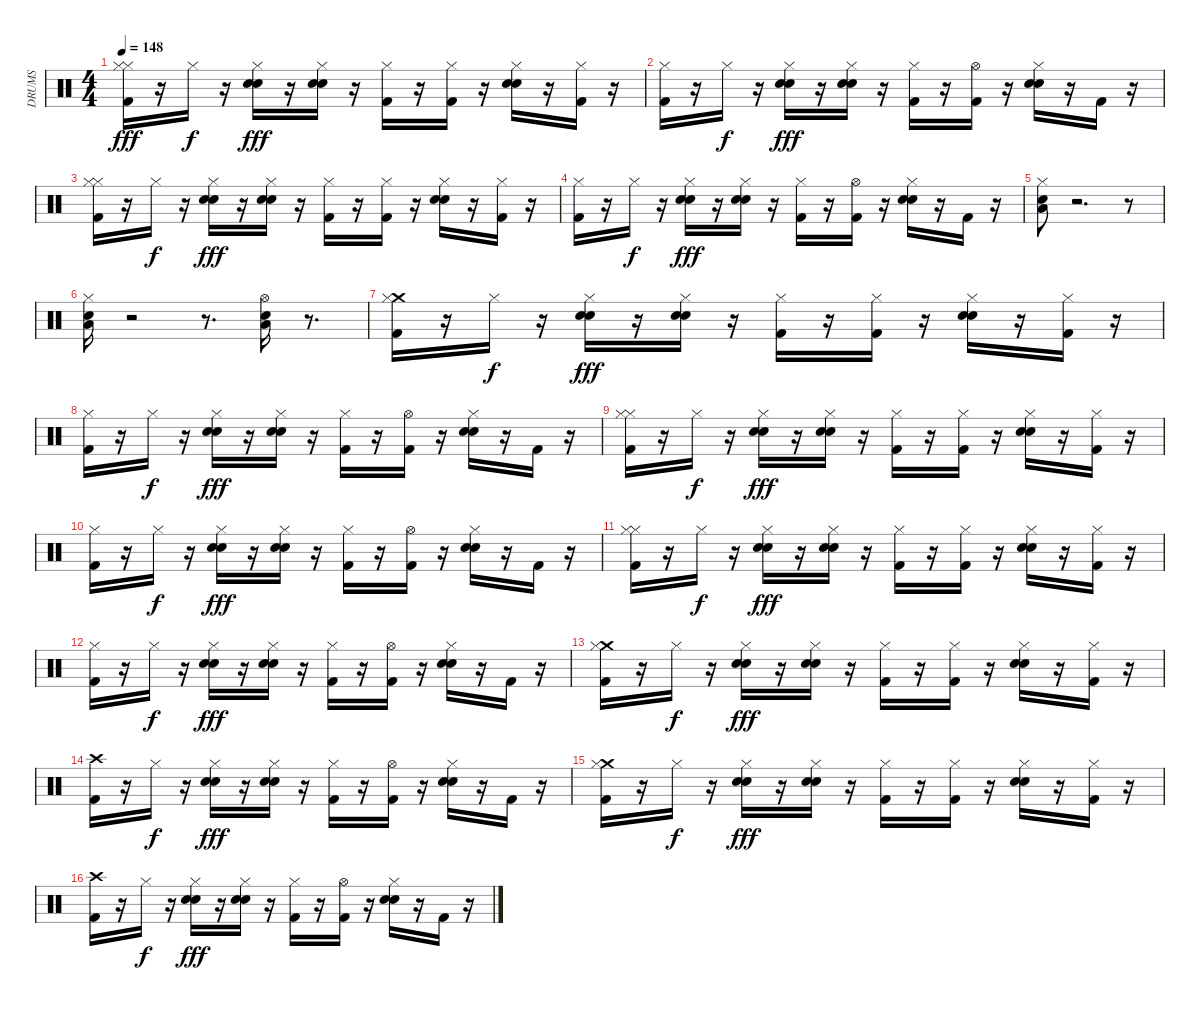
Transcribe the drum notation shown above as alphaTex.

\track ("DRUMS" "DRUMS") {instrument percussion}
\staff {score}
\articulation defaults
\ts (4 4)
\tempo 148
\clef neutral
\ks c
("Hi-Hat (closed)" "Kick (hit) 2" "Hi-Hat (closed)").16{dy fff} r.16 "Hi-Hat (closed)".16{dy f} r.16 ("Hi-Hat (closed)" "Hand Clap (hit)" "Snare (hit) 2").16{dy fff} r.16 ("Snare (hit) 2" "Hand Clap (hit)" "Hi-Hat (closed)").16 r.16 ("Hi-Hat (closed)" "Kick (hit) 2").16 r.16 ("Hi-Hat (closed)" "Kick (hit) 2").16 r.16 ("Hi-Hat (closed)" "Hand Clap (hit)" "Snare (hit) 2").16 r.16 ("Hi-Hat (closed)" "Kick (hit) 2").16 r.16 |
("Hi-Hat (closed)" "Kick (hit) 2").16 r.16 "Hi-Hat (closed)".16{dy f} r.16 ("Hi-Hat (closed)" "Hand Clap (hit)" "Snare (hit) 2").16{dy fff} r.16 ("Hi-Hat (closed)" "Hand Clap (hit)" "Snare (hit) 2").16 r.16 ("Hi-Hat (closed)" "Kick (hit) 2").16 r.16 ("Hi-Hat (open)" "Kick (hit) 2").16 r.16 ("Hand Clap (hit)" "Snare (hit) 2" "Hi-Hat (closed)").16 r.16 "Kick (hit) 2".16 r.16 |
("Hi-Hat (closed)" "Kick (hit) 2" "Hi-Hat (closed)").16 r.16 "Hi-Hat (closed)".16{dy f} r.16 ("Hi-Hat (closed)" "Hand Clap (hit)" "Snare (hit) 2").16{dy fff} r.16 ("Snare (hit) 2" "Hand Clap (hit)" "Hi-Hat (closed)").16 r.16 ("Hi-Hat (closed)" "Kick (hit) 2").16 r.16 ("Hi-Hat (closed)" "Kick (hit) 2").16 r.16 ("Hi-Hat (closed)" "Hand Clap (hit)" "Snare (hit) 2").16 r.16 ("Hi-Hat (closed)" "Kick (hit) 2").16 r.16 |
("Hi-Hat (closed)" "Kick (hit) 2").16 r.16 "Hi-Hat (closed)".16{dy f} r.16 ("Hi-Hat (closed)" "Hand Clap (hit)" "Snare (hit) 2").16{dy fff} r.16 ("Hi-Hat (closed)" "Hand Clap (hit)" "Snare (hit) 2").16 r.16 ("Hi-Hat (closed)" "Kick (hit) 2").16 r.16 ("Hi-Hat (open)" "Kick (hit) 2").16 r.16 ("Hand Clap (hit)" "Snare (hit) 2" "Hi-Hat (closed)").16 r.16 "Kick (hit) 2".16 r.16 |
("Low Floor Tom (hit)" "Snare (hit) 2" "Hi-Hat (closed)").8 r.2{d} r.8 |
("Low Floor Tom (hit)" "Snare (hit) 2" "Hi-Hat (closed)").16 r.2 r.8{d} ("Low Floor Tom (hit)" "Snare (hit) 2" "Hi-Hat (open)").16 r.8{d} |
("Crash medium (hit)" "Kick (hit) 2" "Hi-Hat (closed)").16 r.16 "Hi-Hat (closed)".16{dy f} r.16 ("Hi-Hat (closed)" "Hand Clap (hit)" "Snare (hit) 2").16{dy fff} r.16 ("Snare (hit) 2" "Hand Clap (hit)" "Hi-Hat (closed)").16 r.16 ("Hi-Hat (closed)" "Kick (hit) 2").16 r.16 ("Hi-Hat (closed)" "Kick (hit) 2").16 r.16 ("Hi-Hat (closed)" "Hand Clap (hit)" "Snare (hit) 2").16 r.16 ("Hi-Hat (closed)" "Kick (hit) 2").16 r.16 |
("Hi-Hat (closed)" "Kick (hit) 2").16 r.16 "Hi-Hat (closed)".16{dy f} r.16 ("Hi-Hat (closed)" "Hand Clap (hit)" "Snare (hit) 2").16{dy fff} r.16 ("Hi-Hat (closed)" "Hand Clap (hit)" "Snare (hit) 2").16 r.16 ("Hi-Hat (closed)" "Kick (hit) 2").16 r.16 ("Hi-Hat (open)" "Kick (hit) 2").16 r.16 ("Hand Clap (hit)" "Snare (hit) 2" "Hi-Hat (closed)").16 r.16 "Kick (hit) 2".16 r.16 |
("Hi-Hat (closed)" "Kick (hit) 2" "Hi-Hat (closed)").16 r.16 "Hi-Hat (closed)".16{dy f} r.16 ("Hi-Hat (closed)" "Hand Clap (hit)" "Snare (hit) 2").16{dy fff} r.16 ("Snare (hit) 2" "Hand Clap (hit)" "Hi-Hat (closed)").16 r.16 ("Hi-Hat (closed)" "Kick (hit) 2").16 r.16 ("Hi-Hat (closed)" "Kick (hit) 2").16 r.16 ("Hi-Hat (closed)" "Hand Clap (hit)" "Snare (hit) 2").16 r.16 ("Hi-Hat (closed)" "Kick (hit) 2").16 r.16 |
("Hi-Hat (closed)" "Kick (hit) 2").16 r.16 "Hi-Hat (closed)".16{dy f} r.16 ("Hi-Hat (closed)" "Hand Clap (hit)" "Snare (hit) 2").16{dy fff} r.16 ("Hi-Hat (closed)" "Hand Clap (hit)" "Snare (hit) 2").16 r.16 ("Hi-Hat (closed)" "Kick (hit) 2").16 r.16 ("Hi-Hat (open)" "Kick (hit) 2").16 r.16 ("Hand Clap (hit)" "Snare (hit) 2" "Hi-Hat (closed)").16 r.16 "Kick (hit) 2".16 r.16 |
("Hi-Hat (closed)" "Kick (hit) 2" "Hi-Hat (closed)").16 r.16 "Hi-Hat (closed)".16{dy f} r.16 ("Hi-Hat (closed)" "Hand Clap (hit)" "Snare (hit) 2").16{dy fff} r.16 ("Snare (hit) 2" "Hand Clap (hit)" "Hi-Hat (closed)").16 r.16 ("Hi-Hat (closed)" "Kick (hit) 2").16 r.16 ("Hi-Hat (closed)" "Kick (hit) 2").16 r.16 ("Hi-Hat (closed)" "Hand Clap (hit)" "Snare (hit) 2").16 r.16 ("Hi-Hat (closed)" "Kick (hit) 2").16 r.16 |
("Hi-Hat (closed)" "Kick (hit) 2").16 r.16 "Hi-Hat (closed)".16{dy f} r.16 ("Hi-Hat (closed)" "Hand Clap (hit)" "Snare (hit) 2").16{dy fff} r.16 ("Hi-Hat (closed)" "Hand Clap (hit)" "Snare (hit) 2").16 r.16 ("Hi-Hat (closed)" "Kick (hit) 2").16 r.16 ("Hi-Hat (open)" "Kick (hit) 2").16 r.16 ("Hand Clap (hit)" "Snare (hit) 2" "Hi-Hat (closed)").16 r.16 "Kick (hit) 2".16 r.16 |
("Crash medium (hit)" "Kick (hit) 2" "Hi-Hat (closed)").16 r.16 "Hi-Hat (closed)".16{dy f} r.16 ("Hi-Hat (closed)" "Hand Clap (hit)" "Snare (hit) 2").16{dy fff} r.16 ("Snare (hit) 2" "Hand Clap (hit)" "Hi-Hat (closed)").16 r.16 ("Hi-Hat (closed)" "Kick (hit) 2").16 r.16 ("Hi-Hat (closed)" "Kick (hit) 2").16 r.16 ("Hi-Hat (closed)" "Hand Clap (hit)" "Snare (hit) 2").16 r.16 ("Hi-Hat (closed)" "Kick (hit) 2").16 r.16 |
("Crash high (hit)" "Kick (hit) 2").16 r.16 "Hi-Hat (closed)".16{dy f} r.16 ("Hi-Hat (closed)" "Hand Clap (hit)" "Snare (hit) 2").16{dy fff} r.16 ("Hi-Hat (closed)" "Hand Clap (hit)" "Snare (hit) 2").16 r.16 ("Hi-Hat (closed)" "Kick (hit) 2").16 r.16 ("Hi-Hat (open)" "Kick (hit) 2").16 r.16 ("Hand Clap (hit)" "Snare (hit) 2" "Hi-Hat (closed)").16 r.16 "Kick (hit) 2".16 r.16 |
("Crash medium (hit)" "Kick (hit) 2" "Hi-Hat (closed)").16 r.16 "Hi-Hat (closed)".16{dy f} r.16 ("Hi-Hat (closed)" "Hand Clap (hit)" "Snare (hit) 2").16{dy fff} r.16 ("Snare (hit) 2" "Hand Clap (hit)" "Hi-Hat (closed)").16 r.16 ("Hi-Hat (closed)" "Kick (hit) 2").16 r.16 ("Hi-Hat (closed)" "Kick (hit) 2").16 r.16 ("Hi-Hat (closed)" "Hand Clap (hit)" "Snare (hit) 2").16 r.16 ("Hi-Hat (closed)" "Kick (hit) 2").16 r.16 |
("Crash high (hit)" "Kick (hit) 2").16 r.16 "Hi-Hat (closed)".16{dy f} r.16 ("Hi-Hat (closed)" "Hand Clap (hit)" "Snare (hit) 2").16{dy fff} r.16 ("Hi-Hat (closed)" "Hand Clap (hit)" "Snare (hit) 2").16 r.16 ("Hi-Hat (closed)" "Kick (hit) 2").16 r.16 ("Hi-Hat (open)" "Kick (hit) 2").16 r.16 ("Hand Clap (hit)" "Snare (hit) 2" "Hi-Hat (closed)").16 r.16 "Kick (hit) 2".16 r.16
